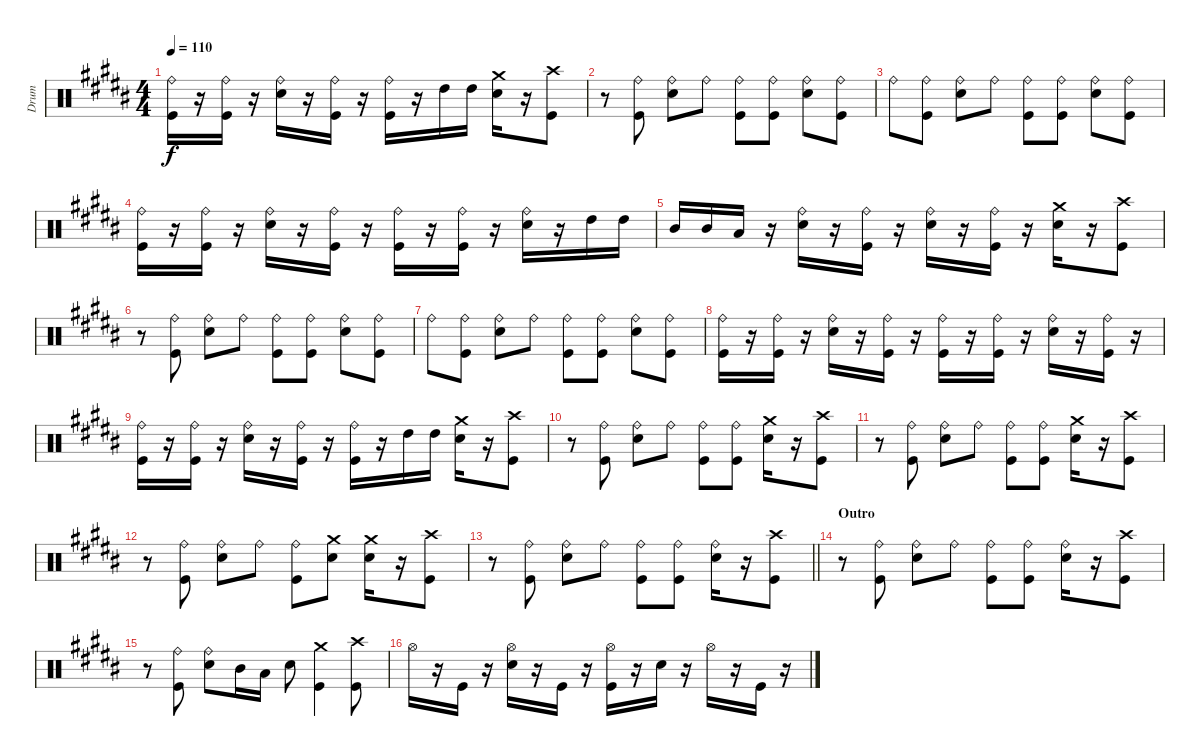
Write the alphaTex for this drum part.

\track ("Drum" "Drum") {instrument percussion}
\staff {score}
\articulation defaults
\ts (4 4)
\tempo 110
\clef neutral
\ks g#minor
("Kick (hit)" "Ride (bell)").16{dy f} r.16 ("Kick (hit)" "Ride (bell)").16 r.16 ("Snare (hit) 2" "Ride (bell)").16 r.16 ("Kick (hit)" "Ride (bell)").16 r.16 ("Kick (hit)" "Ride (bell)").16 r.16 "High Tom (hit)".16 "High Tom (hit)".16 ("Snare (hit) 2" "Crash medium (hit)").16 r.16 ("Kick (hit)" "Crash high (hit)").8 |
\ks b
r.8 ("Kick (hit)" "Ride (bell)").8 ("Snare (hit) 2" "Ride (bell)").8 "Ride (bell)".8 ("Kick (hit)" "Ride (bell)").8 ("Kick (hit)" "Ride (bell)").8 ("Snare (hit) 2" "Ride (bell)").8 ("Kick (hit)" "Ride (bell)").8 |
\ks g#minor "Ride (bell)".8
("Kick (hit)" "Ride (bell)").8 ("Snare (hit) 2" "Ride (bell)").8 "Ride (bell)".8 ("Kick (hit)" "Ride (bell)").8 ("Kick (hit)" "Ride (bell)").8 ("Snare (hit) 2" "Ride (bell)").8 ("Kick (hit)" "Ride (bell)").8 |
("Kick (hit)" "Ride (bell)").16 r.16 ("Kick (hit)" "Ride (bell)").16 r.16 ("Snare (hit) 2" "Ride (bell)").16 r.16 ("Kick (hit)" "Ride (bell)").16 r.16 ("Kick (hit)" "Ride (bell)").16 r.16 ("Kick (hit)" "Ride (bell)").16 r.16 ("Snare (hit) 2" "Ride (bell)").16 r.16 "High Tom (hit)".16 "High Tom (hit)".16 |
"Mid Tom (hit)".16 "Mid Tom (hit)".16 "Low Tom (hit)".16 r.16 ("Snare (hit) 2" "Ride (bell)").16 r.16 ("Kick (hit)" "Ride (bell)").16 r.16 ("Snare (hit) 2" "Ride (bell)").16 r.16 ("Kick (hit)" "Ride (bell)").16 r.16 ("Snare (hit) 2" "Crash medium (hit)").16 r.16 ("Kick (hit)" "Crash high (hit)").8 |
\ks b
r.8 ("Kick (hit)" "Ride (bell)").8 ("Snare (hit) 2" "Ride (bell)").8 "Ride (bell)".8 ("Kick (hit)" "Ride (bell)").8 ("Kick (hit)" "Ride (bell)").8 ("Snare (hit) 2" "Ride (bell)").8 ("Kick (hit)" "Ride (bell)").8 |
\ks g#minor "Ride (bell)".8
("Kick (hit)" "Ride (bell)").8 ("Snare (hit) 2" "Ride (bell)").8 "Ride (bell)".8 ("Kick (hit)" "Ride (bell)").8 ("Kick (hit)" "Ride (bell)").8 ("Snare (hit) 2" "Ride (bell)").8 ("Kick (hit)" "Ride (bell)").8 |
("Kick (hit)" "Ride (bell)").16 r.16 ("Kick (hit)" "Ride (bell)").16 r.16 ("Snare (hit) 2" "Ride (bell)").16 r.16 ("Kick (hit)" "Ride (bell)").16 r.16 ("Kick (hit)" "Ride (bell)").16 r.16 ("Kick (hit)" "Ride (bell)").16 r.16 ("Snare (hit) 2" "Ride (bell)").16 r.16 ("Kick (hit)" "Ride (bell)").16 r.16 |
("Kick (hit)" "Ride (bell)").16 r.16 ("Kick (hit)" "Ride (bell)").16 r.16 ("Snare (hit) 2" "Ride (bell)").16 r.16 ("Kick (hit)" "Ride (bell)").16 r.16 ("Kick (hit)" "Ride (bell)").16 r.16 "High Tom (hit)".16 "High Tom (hit)".16 ("Snare (hit) 2" "Crash medium (hit)").16 r.16 ("Kick (hit)" "Crash high (hit)").8 |
\ks b
r.8 ("Kick (hit)" "Ride (bell)").8 ("Snare (hit) 2" "Ride (bell)").8 "Ride (bell)".8 ("Kick (hit)" "Ride (bell)").8 ("Kick (hit)" "Ride (bell)").8 ("Snare (hit) 2" "Crash medium (hit)").16 r.16 ("Kick (hit)" "Crash high (hit)").8 |
\ks g#minor
r.8 ("Kick (hit)" "Ride (bell)").8 ("Snare (hit) 2" "Ride (bell)").8 "Ride (bell)".8 ("Kick (hit)" "Ride (bell)").8 ("Kick (hit)" "Ride (bell)").8 ("Snare (hit) 2" "Crash medium (hit)").16 r.16 ("Kick (hit)" "Crash high (hit)").8 |
r.8 ("Kick (hit)" "Ride (bell)").8 ("Snare (hit) 2" "Ride (bell)").8 "Ride (bell)".8 ("Kick (hit)" "Ride (bell)").8 ("Snare (hit) 2" "Crash medium (hit)").8 ("Snare (hit) 2" "Crash medium (hit)").16 r.16 ("Kick (hit)" "Crash high (hit)").8 |
\barLineRight lightlight
\ks b
r.8 ("Kick (hit)" "Ride (bell)").8 ("Snare (hit) 2" "Ride (bell)").8 "Ride (bell)".8 ("Kick (hit)" "Ride (bell)").8 ("Kick (hit)" "Ride (bell)").8 ("Snare (hit) 2" "Ride (bell)").16 r.16 ("Kick (hit)" "Crash high (hit)").8 |
\section ("" "Outro")
\ks g#minor
r.8 ("Kick (hit)" "Ride (bell)").8 ("Snare (hit) 2" "Ride (bell)").8 "Ride (bell)".8 ("Kick (hit)" "Ride (bell)").8 ("Kick (hit)" "Ride (bell)").8 ("Snare (hit) 2" "Ride (bell)").16 r.16 ("Kick (hit)" "Crash high (hit)").8 |
r.8 ("Kick (hit)" "Ride (bell)").8 ("Snare (hit) 2" "Ride (bell)").8 "Mid Tom (hit)".16 "Low Tom (hit)".16 "Snare (hit) 2".8 ("Kick (hit)" "Crash medium (hit)").4 ("Kick (hit)" "Crash high (hit)").8 |
"Hi-Hat (open)".16 r.16 "Kick (hit)".16 r.16 ("Snare (hit) 2" "Hi-Hat (open)").16 r.16 "Kick (hit)".16 r.16 ("Kick (hit)" "Hi-Hat (open)").16 r.16 "Snare (hit) 2".16 r.16 "Hi-Hat (open)".16 r.16 "Kick (hit)".16 r.16
